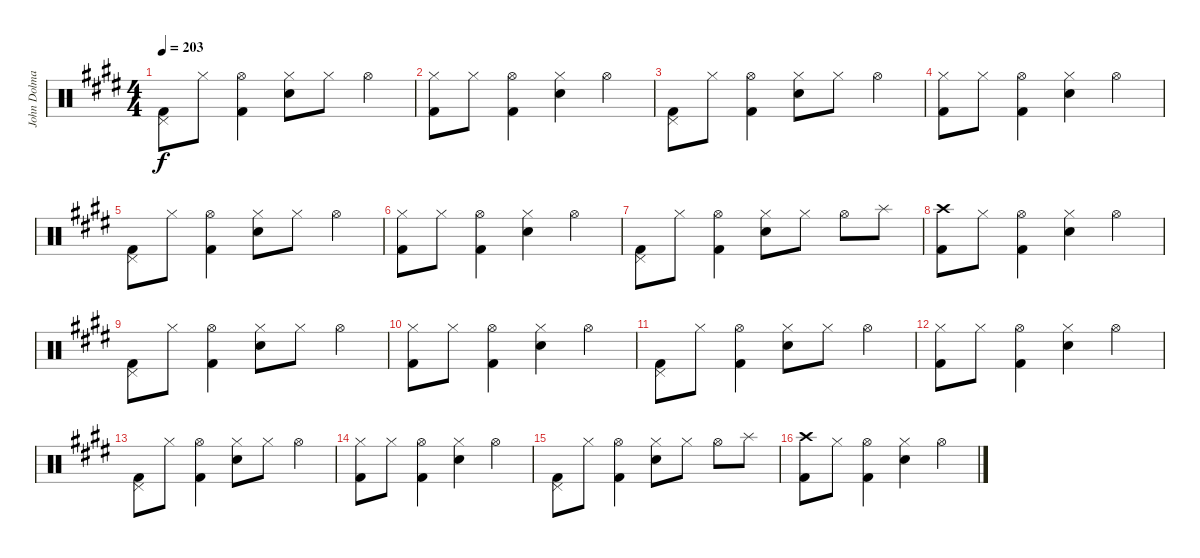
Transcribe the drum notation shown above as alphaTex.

\track ("John Dolmayan [Drums]" "John Dolma") {instrument percussion}
\staff {score}
\articulation defaults
\ts (4 4)
\tempo 203
\clef neutral
\ks c#minor
("Pedal Hi-Hat (hit)" "Kick (hit) 2").8{dy f} "Hi-Hat (closed)".8 ("Hi-Hat (open)" "Kick (hit) 2").4 ("Hi-Hat (closed)" "Electric Snare (hit)").8 "Hi-Hat (closed)".8 "Hi-Hat (open)".4 |
("Hi-Hat (closed)" "Kick (hit) 2").8 "Hi-Hat (closed)".8 ("Hi-Hat (open)" "Kick (hit) 2").4 ("Hi-Hat (closed)" "Electric Snare (hit)").4 "Hi-Hat (open)".4 |
("Pedal Hi-Hat (hit)" "Kick (hit) 2").8 "Hi-Hat (closed)".8 ("Hi-Hat (open)" "Kick (hit) 2").4 ("Hi-Hat (closed)" "Electric Snare (hit)").8 "Hi-Hat (closed)".8 "Hi-Hat (open)".4 |
("Hi-Hat (closed)" "Kick (hit) 2").8 "Hi-Hat (closed)".8 ("Hi-Hat (open)" "Kick (hit) 2").4 ("Hi-Hat (closed)" "Electric Snare (hit)").4 "Hi-Hat (open)".4 |
("Pedal Hi-Hat (hit)" "Kick (hit) 2").8 "Hi-Hat (closed)".8 ("Hi-Hat (open)" "Kick (hit) 2").4 ("Hi-Hat (closed)" "Electric Snare (hit)").8 "Hi-Hat (closed)".8 "Hi-Hat (open)".4 |
("Hi-Hat (closed)" "Kick (hit) 2").8 "Hi-Hat (closed)".8 ("Hi-Hat (open)" "Kick (hit) 2").4 ("Hi-Hat (closed)" "Electric Snare (hit)").4 "Hi-Hat (open)".4 |
("Pedal Hi-Hat (hit)" "Kick (hit) 2").8 "Hi-Hat (closed)".8 ("Hi-Hat (open)" "Kick (hit) 2").4 ("Hi-Hat (closed)" "Electric Snare (hit)").8 "Hi-Hat (closed)".8 "Hi-Hat (open)".8 "Splash (hit)".8 |
("Crash high (hit)" "Kick (hit) 2").8 "Hi-Hat (closed)".8 ("Hi-Hat (open)" "Kick (hit) 2").4 ("Hi-Hat (closed)" "Electric Snare (hit)").4 "Hi-Hat (open)".4 |
("Pedal Hi-Hat (hit)" "Kick (hit) 2").8 "Hi-Hat (closed)".8 ("Hi-Hat (open)" "Kick (hit) 2").4 ("Hi-Hat (closed)" "Electric Snare (hit)").8 "Hi-Hat (closed)".8 "Hi-Hat (open)".4 |
("Hi-Hat (closed)" "Kick (hit) 2").8 "Hi-Hat (closed)".8 ("Hi-Hat (open)" "Kick (hit) 2").4 ("Hi-Hat (closed)" "Electric Snare (hit)").4 "Hi-Hat (open)".4 |
("Pedal Hi-Hat (hit)" "Kick (hit) 2").8 "Hi-Hat (closed)".8 ("Hi-Hat (open)" "Kick (hit) 2").4 ("Hi-Hat (closed)" "Electric Snare (hit)").8 "Hi-Hat (closed)".8 "Hi-Hat (open)".4 |
("Hi-Hat (closed)" "Kick (hit) 2").8 "Hi-Hat (closed)".8 ("Hi-Hat (open)" "Kick (hit) 2").4 ("Hi-Hat (closed)" "Electric Snare (hit)").4 "Hi-Hat (open)".4 |
("Pedal Hi-Hat (hit)" "Kick (hit) 2").8 "Hi-Hat (closed)".8 ("Hi-Hat (open)" "Kick (hit) 2").4 ("Hi-Hat (closed)" "Electric Snare (hit)").8 "Hi-Hat (closed)".8 "Hi-Hat (open)".4 |
("Hi-Hat (closed)" "Kick (hit) 2").8 "Hi-Hat (closed)".8 ("Hi-Hat (open)" "Kick (hit) 2").4 ("Hi-Hat (closed)" "Electric Snare (hit)").4 "Hi-Hat (open)".4 |
("Pedal Hi-Hat (hit)" "Kick (hit) 2").8 "Hi-Hat (closed)".8 ("Hi-Hat (open)" "Kick (hit) 2").4 ("Hi-Hat (closed)" "Electric Snare (hit)").8 "Hi-Hat (closed)".8 "Hi-Hat (open)".8 "Splash (hit)".8 |
("Crash high (hit)" "Kick (hit) 2").8 "Hi-Hat (closed)".8 ("Hi-Hat (open)" "Kick (hit) 2").4 ("Hi-Hat (closed)" "Electric Snare (hit)").4 "Hi-Hat (open)".4
